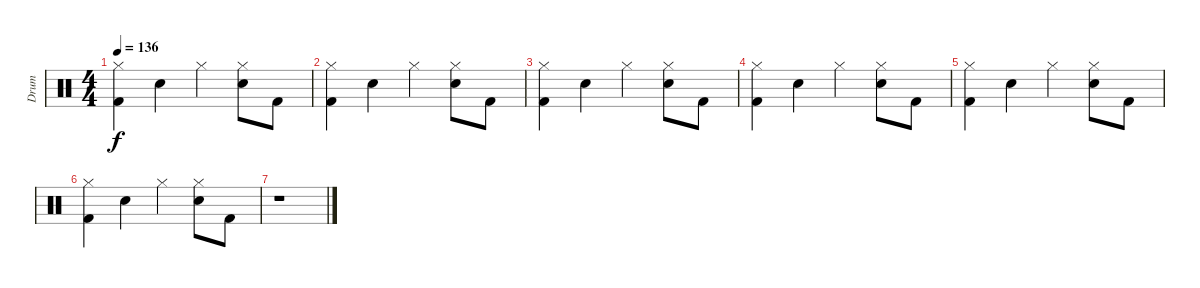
\track ("Drum" "Drum") {instrument percussion}
\staff {score}
\articulation defaults
\ts (4 4)
\tempo 136
\clef neutral
\ks c
("Hi-Hat (closed)" "Kick (hit) 2").4{dy f} "Snare (hit) 2".4 "Hi-Hat (closed)".4 ("Hi-Hat (closed)" "Snare (hit) 2").8 "Kick (hit) 2".8 |
("Hi-Hat (closed)" "Kick (hit) 2").4 "Snare (hit) 2".4 "Hi-Hat (closed)".4 ("Hi-Hat (closed)" "Snare (hit) 2").8 "Kick (hit) 2".8 |
("Hi-Hat (closed)" "Kick (hit) 2").4 "Snare (hit) 2".4 "Hi-Hat (closed)".4 ("Hi-Hat (closed)" "Snare (hit) 2").8 "Kick (hit) 2".8 |
("Hi-Hat (closed)" "Kick (hit) 2").4 "Snare (hit) 2".4 "Hi-Hat (closed)".4 ("Hi-Hat (closed)" "Snare (hit) 2").8 "Kick (hit) 2".8 |
("Hi-Hat (closed)" "Kick (hit) 2").4 "Snare (hit) 2".4 "Hi-Hat (closed)".4 ("Hi-Hat (closed)" "Snare (hit) 2").8 "Kick (hit) 2".8 |
("Hi-Hat (closed)" "Kick (hit) 2").4 "Snare (hit) 2".4 "Hi-Hat (closed)".4 ("Hi-Hat (closed)" "Snare (hit) 2").8 "Kick (hit) 2".8 |
r.1
